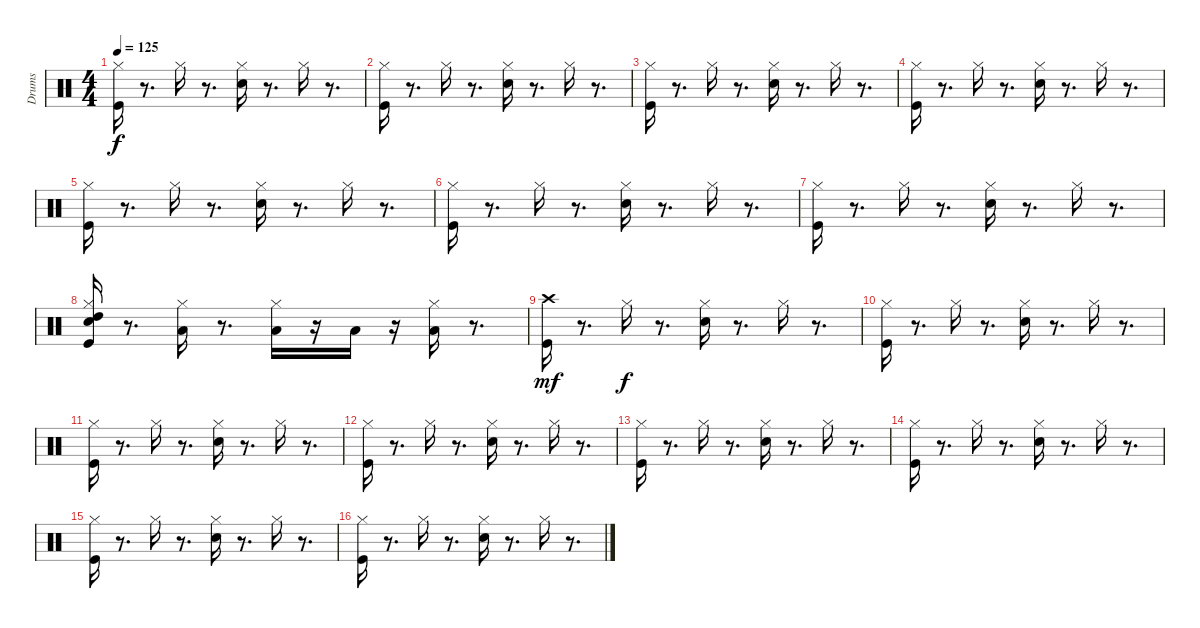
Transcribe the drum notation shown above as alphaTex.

\track ("Drums" "Drums") {instrument percussion}
\staff {score}
\articulation defaults
\ts (4 4)
\tempo 125
\clef neutral
\ks c
("Kick (hit)" "Hi-Hat (closed)").16{dy f} r.8{d} "Hi-Hat (closed)".16 r.8{d} ("Snare (hit) 2" "Hi-Hat (closed)").16 r.8{d} "Hi-Hat (closed)".16 r.8{d} |
("Kick (hit)" "Hi-Hat (closed)").16 r.8{d} "Hi-Hat (closed)".16 r.8{d} ("Snare (hit) 2" "Hi-Hat (closed)").16 r.8{d} "Hi-Hat (closed)".16 r.8{d} |
("Kick (hit)" "Hi-Hat (closed)").16 r.8{d} "Hi-Hat (closed)".16 r.8{d} ("Snare (hit) 2" "Hi-Hat (closed)").16 r.8{d} "Hi-Hat (closed)".16 r.8{d} |
("Kick (hit)" "Hi-Hat (closed)").16 r.8{d} "Hi-Hat (closed)".16 r.8{d} ("Snare (hit) 2" "Hi-Hat (closed)").16 r.8{d} "Hi-Hat (closed)".16 r.8{d} |
("Kick (hit)" "Hi-Hat (closed)").16 r.8{d} "Hi-Hat (closed)".16 r.8{d} ("Snare (hit) 2" "Hi-Hat (closed)").16 r.8{d} "Hi-Hat (closed)".16 r.8{d} |
("Kick (hit)" "Hi-Hat (closed)").16 r.8{d} "Hi-Hat (closed)".16 r.8{d} ("Snare (hit) 2" "Hi-Hat (closed)").16 r.8{d} "Hi-Hat (closed)".16 r.8{d} |
("Kick (hit)" "Hi-Hat (closed)").16 r.8{d} "Hi-Hat (closed)".16 r.8{d} ("Snare (hit) 2" "Hi-Hat (closed)").16 r.8{d} "Hi-Hat (closed)".16 r.8{d} |
("Kick (hit)" "Snare (hit) 2" "Hi-Hat (closed)" "High Tom (hit)").16 r.8{d} ("Hi-Hat (closed)" "Low Tom (hit)").16 r.8{d} ("Hi-Hat (closed)" "Low Tom (hit)").16 r.16 "Low Floor Tom (hit)".16 r.16 ("Hi-Hat (closed)" "Low Floor Tom (hit)").16 r.8{d} |
("Kick (hit)" "Crash high (hit)").16{dy mf} r.8{d} "Hi-Hat (closed)".16{dy f} r.8{d} ("Snare (hit) 2" "Hi-Hat (closed)").16 r.8{d} "Hi-Hat (closed)".16 r.8{d} |
("Kick (hit)" "Hi-Hat (closed)").16 r.8{d} "Hi-Hat (closed)".16 r.8{d} ("Snare (hit) 2" "Hi-Hat (closed)").16 r.8{d} "Hi-Hat (closed)".16 r.8{d} |
("Kick (hit)" "Hi-Hat (closed)").16 r.8{d} "Hi-Hat (closed)".16 r.8{d} ("Snare (hit) 2" "Hi-Hat (closed)").16 r.8{d} "Hi-Hat (closed)".16 r.8{d} |
("Kick (hit)" "Hi-Hat (closed)").16 r.8{d} "Hi-Hat (closed)".16 r.8{d} ("Snare (hit) 2" "Hi-Hat (closed)").16 r.8{d} "Hi-Hat (closed)".16 r.8{d} |
("Kick (hit)" "Hi-Hat (closed)").16 r.8{d} "Hi-Hat (closed)".16 r.8{d} ("Snare (hit) 2" "Hi-Hat (closed)").16 r.8{d} "Hi-Hat (closed)".16 r.8{d} |
("Kick (hit)" "Hi-Hat (closed)").16 r.8{d} "Hi-Hat (closed)".16 r.8{d} ("Snare (hit) 2" "Hi-Hat (closed)").16 r.8{d} "Hi-Hat (closed)".16 r.8{d} |
("Kick (hit)" "Hi-Hat (closed)").16 r.8{d} "Hi-Hat (closed)".16 r.8{d} ("Snare (hit) 2" "Hi-Hat (closed)").16 r.8{d} "Hi-Hat (closed)".16 r.8{d} |
("Kick (hit)" "Hi-Hat (closed)").16 r.8{d} "Hi-Hat (closed)".16 r.8{d} ("Snare (hit) 2" "Hi-Hat (closed)").16 r.8{d} "Hi-Hat (closed)".16 r.8{d}
